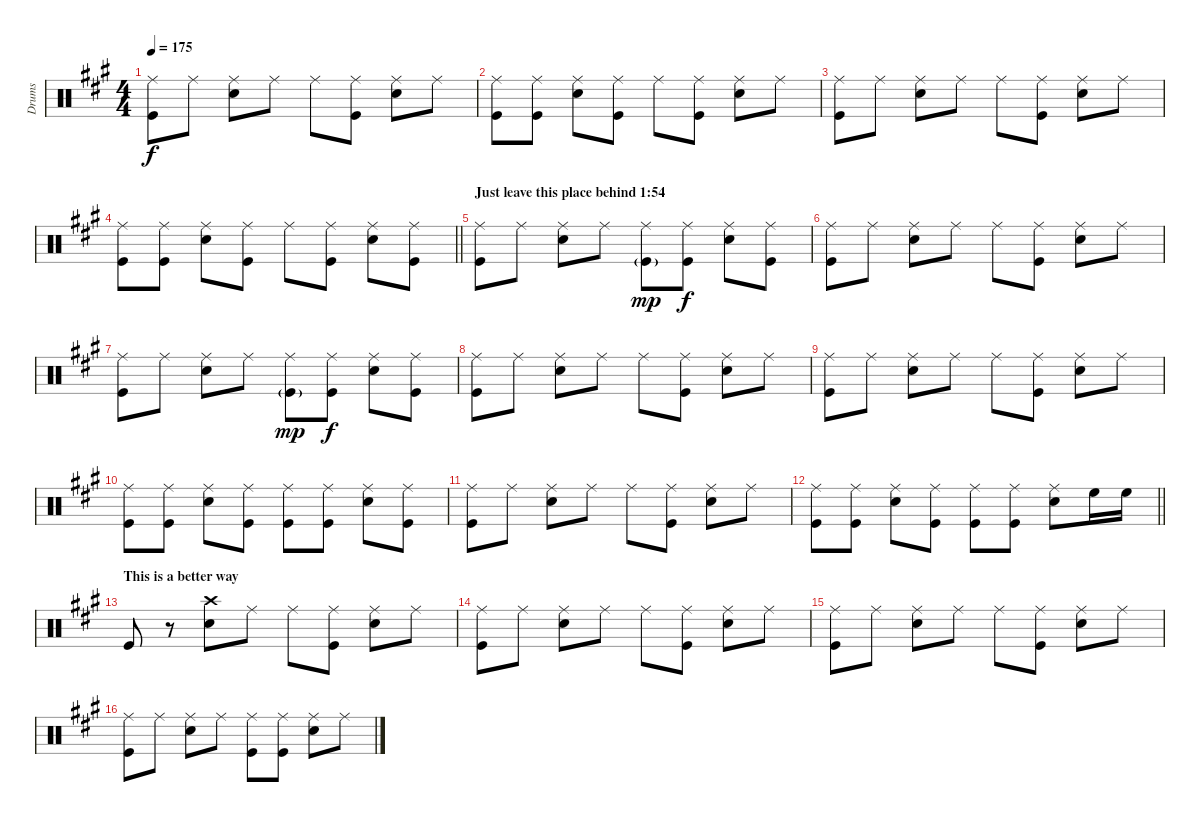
\track ("Drums" "Drums") {instrument percussion}
\staff {score}
\articulation defaults
\ts (4 4)
\tempo 175
\clef neutral
\ks f#minor
("Ride (middle)" "Kick (hit)").8{dy f} "Ride (middle)".8 ("Ride (middle)" "Snare (hit) 2").8 "Ride (middle)".8 "Ride (middle)".8 ("Ride (middle)" "Kick (hit)").8 ("Ride (middle)" "Snare (hit) 2").8 "Ride (middle)".8 |
("Ride (middle)" "Kick (hit)").8 ("Ride (middle)" "Kick (hit)").8 ("Ride (middle)" "Snare (hit) 2").8 ("Ride (middle)" "Kick (hit)").8 "Ride (middle)".8 ("Ride (middle)" "Kick (hit)").8 ("Ride (middle)" "Snare (hit) 2").8 "Ride (middle)".8 |
("Ride (middle)" "Kick (hit)").8 "Ride (middle)".8 ("Ride (middle)" "Snare (hit) 2").8 "Ride (middle)".8 "Ride (middle)".8 ("Ride (middle)" "Kick (hit)").8 ("Ride (middle)" "Snare (hit) 2").8 "Ride (middle)".8 |
\barLineRight lightlight
("Ride (middle)" "Kick (hit)").8 ("Ride (middle)" "Kick (hit)").8 ("Ride (middle)" "Snare (hit) 2").8 ("Ride (middle)" "Kick (hit)").8 "Ride (middle)".8 ("Ride (middle)" "Kick (hit)").8 ("Ride (middle)" "Snare (hit) 2").8 ("Ride (middle)" "Kick (hit)").8 |
\section ("" "Just leave this place behind 1:54")
("Ride (middle)" "Kick (hit)").8 "Ride (middle)".8 ("Ride (middle)" "Snare (hit) 2").8 "Ride (middle)".8 ("Ride (middle)" "Kick (hit)"{g}).8{dy mp} ("Ride (middle)" "Kick (hit)").8{dy f} ("Ride (middle)" "Snare (hit) 2").8 ("Ride (middle)" "Kick (hit)").8 |
("Ride (middle)" "Kick (hit)").8 "Ride (middle)".8 ("Ride (middle)" "Snare (hit) 2").8 "Ride (middle)".8 "Ride (middle)".8 ("Ride (middle)" "Kick (hit)").8 ("Ride (middle)" "Snare (hit) 2").8 "Ride (middle)".8 |
("Ride (middle)" "Kick (hit)").8 "Ride (middle)".8 ("Ride (middle)" "Snare (hit) 2").8 "Ride (middle)".8 ("Ride (middle)" "Kick (hit)"{g}).8{dy mp} ("Ride (middle)" "Kick (hit)").8{dy f} ("Ride (middle)" "Snare (hit) 2").8 ("Ride (middle)" "Kick (hit)").8 |
("Ride (middle)" "Kick (hit)").8 "Ride (middle)".8 ("Ride (middle)" "Snare (hit) 2").8 "Ride (middle)".8 "Ride (middle)".8 ("Ride (middle)" "Kick (hit)").8 ("Ride (middle)" "Snare (hit) 2").8 "Ride (middle)".8 |
("Ride (middle)" "Kick (hit)").8 "Ride (middle)".8 ("Ride (middle)" "Snare (hit) 2").8 "Ride (middle)".8 "Ride (middle)".8 ("Ride (middle)" "Kick (hit)").8 ("Ride (middle)" "Snare (hit) 2").8 "Ride (middle)".8 |
("Ride (middle)" "Kick (hit)").8 ("Ride (middle)" "Kick (hit)").8 ("Ride (middle)" "Snare (hit) 2").8 ("Ride (middle)" "Kick (hit)").8 ("Ride (middle)" "Kick (hit)").8 ("Ride (middle)" "Kick (hit)").8 ("Ride (middle)" "Snare (hit) 2").8 ("Ride (middle)" "Kick (hit)").8 |
("Ride (middle)" "Kick (hit)").8 "Ride (middle)".8 ("Ride (middle)" "Snare (hit) 2").8 "Ride (middle)".8 "Ride (middle)".8 ("Ride (middle)" "Kick (hit)").8 ("Ride (middle)" "Snare (hit) 2").8 "Ride (middle)".8 |
\barLineRight lightlight
("Ride (middle)" "Kick (hit)").8 ("Ride (middle)" "Kick (hit)").8 ("Ride (middle)" "Snare (hit) 2").8 ("Ride (middle)" "Kick (hit)").8 ("Ride (middle)" "Kick (hit)").8 ("Ride (middle)" "Kick (hit)").8 ("Ride (middle)" "Snare (hit) 2").8 "High Floor Tom (hit)".16 "High Floor Tom (hit)".16 |
\section ("" "This is a better way")
"Kick (hit)".8 r.8 ("Crash high (hit)" "Snare (hit) 2").8 "Ride (middle)".8 "Ride (middle)".8 ("Ride (middle)" "Kick (hit)").8 ("Ride (middle)" "Snare (hit) 2").8 "Ride (middle)".8 |
("Ride (middle)" "Kick (hit)").8 "Ride (middle)".8 ("Ride (middle)" "Snare (hit) 2").8 "Ride (middle)".8 "Ride (middle)".8 ("Ride (middle)" "Kick (hit)").8 ("Ride (middle)" "Snare (hit) 2").8 "Ride (middle)".8 |
("Ride (middle)" "Kick (hit)").8 "Ride (middle)".8 ("Ride (middle)" "Snare (hit) 2").8 "Ride (middle)".8 "Ride (middle)".8 ("Ride (middle)" "Kick (hit)").8 ("Ride (middle)" "Snare (hit) 2").8 "Ride (middle)".8 |
("Ride (middle)" "Kick (hit)").8 "Ride (middle)".8 ("Ride (middle)" "Snare (hit) 2").8 "Ride (middle)".8 ("Ride (middle)" "Kick (hit)").8 ("Ride (middle)" "Kick (hit)").8 ("Ride (middle)" "Snare (hit) 2").8 "Ride (middle)".8
